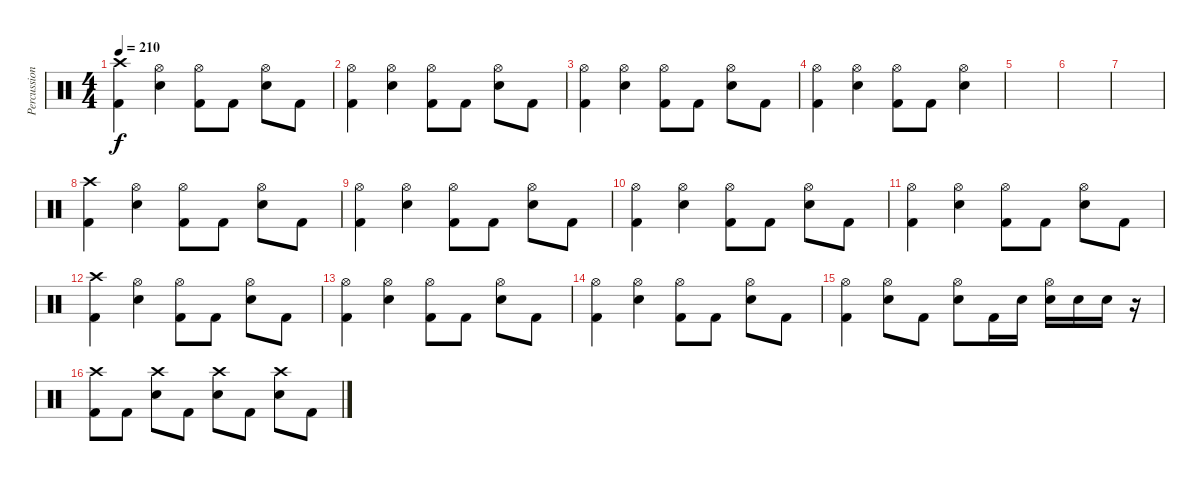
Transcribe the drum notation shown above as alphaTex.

\track ("Percussion" "Percussion") {instrument percussion}
\staff {score}
\articulation defaults
\ts (4 4)
\tempo 210
\clef neutral
\ks c
("Crash high (hit)" "Kick (hit) 2").4{dy f} ("Hi-Hat (open)" "Electric Snare (hit)").4 ("Hi-Hat (open)" "Kick (hit) 2").8 "Kick (hit) 2".8 ("Hi-Hat (open)" "Electric Snare (hit)").8 "Kick (hit) 2".8 |
("Hi-Hat (open)" "Kick (hit) 2").4 ("Hi-Hat (open)" "Electric Snare (hit)").4 ("Hi-Hat (open)" "Kick (hit) 2").8 "Kick (hit) 2".8 ("Hi-Hat (open)" "Electric Snare (hit)").8 "Kick (hit) 2".8 |
("Hi-Hat (open)" "Kick (hit) 2").4 ("Hi-Hat (open)" "Electric Snare (hit)").4 ("Hi-Hat (open)" "Kick (hit) 2").8 "Kick (hit) 2".8 ("Hi-Hat (open)" "Electric Snare (hit)").8 "Kick (hit) 2".8 |
("Hi-Hat (open)" "Kick (hit) 2").4 ("Hi-Hat (open)" "Electric Snare (hit)").4 ("Hi-Hat (open)" "Kick (hit) 2").8 "Kick (hit) 2".8 ("Hi-Hat (open)" "Electric Snare (hit)").4 |
|
|
|
("Crash high (hit)" "Kick (hit) 2").4 ("Hi-Hat (open)" "Electric Snare (hit)").4 ("Hi-Hat (open)" "Kick (hit) 2").8 "Kick (hit) 2".8 ("Hi-Hat (open)" "Electric Snare (hit)").8 "Kick (hit) 2".8 |
("Hi-Hat (open)" "Kick (hit) 2").4 ("Hi-Hat (open)" "Electric Snare (hit)").4 ("Hi-Hat (open)" "Kick (hit) 2").8 "Kick (hit) 2".8 ("Hi-Hat (open)" "Electric Snare (hit)").8 "Kick (hit) 2".8 |
("Hi-Hat (open)" "Kick (hit) 2").4 ("Hi-Hat (open)" "Electric Snare (hit)").4 ("Hi-Hat (open)" "Kick (hit) 2").8 "Kick (hit) 2".8 ("Hi-Hat (open)" "Electric Snare (hit)").8 "Kick (hit) 2".8 |
("Hi-Hat (open)" "Kick (hit) 2").4 ("Hi-Hat (open)" "Electric Snare (hit)").4 ("Hi-Hat (open)" "Kick (hit) 2").8 "Kick (hit) 2".8 ("Hi-Hat (open)" "Electric Snare (hit)").8 "Kick (hit) 2".8 |
("Crash high (hit)" "Kick (hit) 2").4 ("Hi-Hat (open)" "Electric Snare (hit)").4 ("Hi-Hat (open)" "Kick (hit) 2").8 "Kick (hit) 2".8 ("Hi-Hat (open)" "Electric Snare (hit)").8 "Kick (hit) 2".8 |
("Hi-Hat (open)" "Kick (hit) 2").4 ("Hi-Hat (open)" "Electric Snare (hit)").4 ("Hi-Hat (open)" "Kick (hit) 2").8 "Kick (hit) 2".8 ("Hi-Hat (open)" "Electric Snare (hit)").8 "Kick (hit) 2".8 |
("Hi-Hat (open)" "Kick (hit) 2").4 ("Hi-Hat (open)" "Electric Snare (hit)").4 ("Hi-Hat (open)" "Kick (hit) 2").8 "Kick (hit) 2".8 ("Hi-Hat (open)" "Electric Snare (hit)").8 "Kick (hit) 2".8 |
("Hi-Hat (open)" "Kick (hit) 2").4 ("Hi-Hat (open)" "Electric Snare (hit)").8 "Kick (hit) 2".8 ("Hi-Hat (open)" "Electric Snare (hit)").8 "Kick (hit) 2".16 "Electric Snare (hit)".16 ("Hi-Hat (open)" "Electric Snare (hit)").16 "Electric Snare (hit)".16 "Electric Snare (hit)".16 r.16 |
("Crash high (hit)" "Kick (hit) 2").8 "Kick (hit) 2".8 ("Crash high (hit)" "Electric Snare (hit)").8 "Kick (hit) 2".8 ("Crash high (hit)" "Electric Snare (hit)").8 "Kick (hit) 2".8 ("Crash high (hit)" "Electric Snare (hit)").8 "Kick (hit) 2".8
